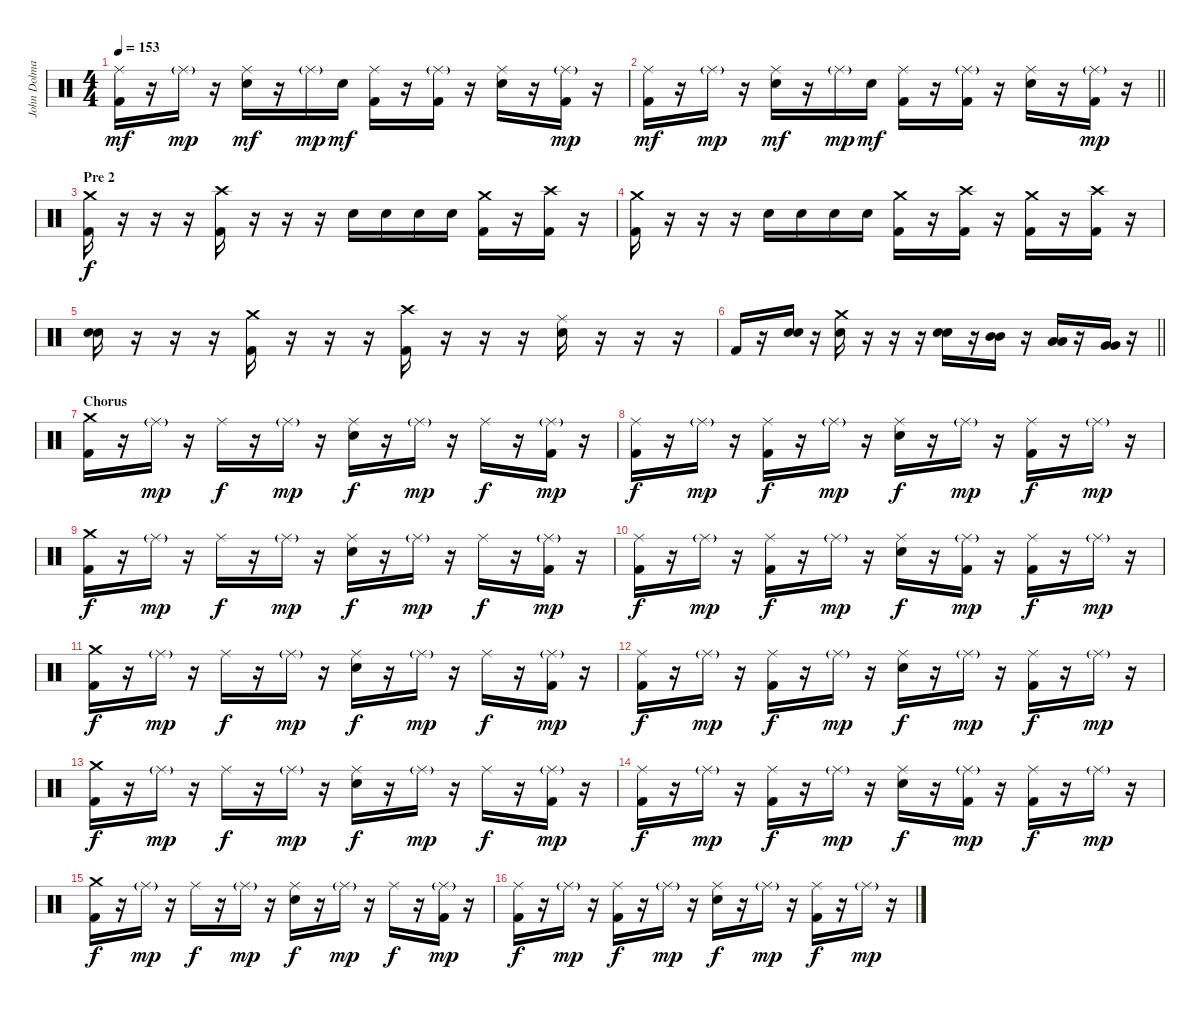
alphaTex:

\track ("John Dolmayan" "John Dolma") {instrument percussion}
\staff {score}
\articulation defaults
\ts (4 4)
\tempo 153
\clef neutral
\ks c
("Ride (middle)" "Kick (hit) 2").16{dy mf} r.16 "Ride (middle)"{g}.16{dy mp} r.16 ("Ride (middle)" "Electric Snare (hit)").16{dy mf} r.16 "Ride (middle)"{g}.16{dy mp} "Electric Snare (hit)".16{dy mf} ("Ride (middle)" "Kick (hit) 2").16 r.16 ("Ride (middle)"{g} "Kick (hit) 2").16 r.16 ("Ride (middle)" "Electric Snare (hit)").16 r.16 ("Ride (middle)"{g} "Kick (hit) 2").16{dy mp} r.16 |
\barLineRight lightlight
("Ride (middle)" "Kick (hit) 2").16{dy mf} r.16 "Ride (middle)"{g}.16{dy mp} r.16 ("Ride (middle)" "Electric Snare (hit)").16{dy mf} r.16 "Ride (middle)"{g}.16{dy mp} "Electric Snare (hit)".16{dy mf} ("Ride (middle)" "Kick (hit) 2").16 r.16 ("Ride (middle)"{g} "Kick (hit) 2").16 r.16 ("Ride (middle)" "Electric Snare (hit)").16 r.16 ("Ride (middle)"{g} "Kick (hit) 2").16{dy mp} r.16 |
\section ("" "Pre 2")
("Crash medium (hit)" "Kick (hit) 2").16{dy f} r.16 r.16 r.16 ("Crash high (hit)" "Kick (hit) 2").16 r.16 r.16 r.16 "Electric Snare (hit)".16 "Electric Snare (hit)".16 "Electric Snare (hit)".16 "Electric Snare (hit)".16 ("Crash medium (hit)" "Kick (hit) 2").16 r.16 ("Crash high (hit)" "Kick (hit) 2").16 r.16 |
("Crash medium (hit)" "Kick (hit) 2").16 r.16 r.16 r.16 "Electric Snare (hit)".16 "Electric Snare (hit)".16 "Electric Snare (hit)".16 "Electric Snare (hit)".16 ("Crash medium (hit)" "Kick (hit) 2").16 r.16 ("Crash high (hit)" "Kick (hit) 2").16 r.16 ("Crash medium (hit)" "Kick (hit) 2").16 r.16 ("Crash high (hit)" "Kick (hit) 2").16 r.16 |
("Electric Snare (hit)" "Electric Snare (hit)").16 r.16 r.16 r.16 ("Crash medium (hit)" "Kick (hit) 2").16 r.16 r.16 r.16 ("Crash high (hit)" "Kick (hit) 2").16 r.16 r.16 r.16 ("Ride (middle)" "Electric Snare (hit)").16 r.16 r.16 r.16 |
\barLineRight lightlight "Kick (hit) 2".16
r.16 ("Electric Snare (hit)" "Electric Snare (hit)").16 r.16 ("Crash medium (hit)" "Electric Snare (hit)").16 r.16 r.16 r.16 ("Electric Snare (hit)" "Electric Snare (hit)").16 r.16 ("Mid Tom (hit)" "Mid Tom (hit)").16 r.16 ("Low Tom (hit)" "Low Tom (hit)").16 r.16 ("Very Low Tom (hit)" "Very Low Tom (hit)").16 r.16 |
\section ("" "Chorus")
("Crash medium (hit)" "Kick (hit) 2").16 r.16 "Ride (middle)"{g}.16{dy mp} r.16 "Ride (middle)".16{dy f} r.16 "Ride (middle)"{g}.16{dy mp} r.16 ("Ride (middle)" "Electric Snare (hit)").16{dy f} r.16 "Ride (middle)"{g}.16{dy mp} r.16 "Ride (middle)".16{dy f} r.16 ("Ride (middle)"{g} "Kick (hit) 2").16{dy mp} r.16 |
("Ride (middle)" "Kick (hit) 2").16{dy f} r.16 "Ride (middle)"{g}.16{dy mp} r.16 ("Ride (middle)" "Kick (hit) 2").16{dy f} r.16 "Ride (middle)"{g}.16{dy mp} r.16 ("Ride (middle)" "Electric Snare (hit)").16{dy f} r.16 "Ride (middle)"{g}.16{dy mp} r.16 ("Ride (middle)" "Kick (hit) 2").16{dy f} r.16 "Ride (middle)"{g}.16{dy mp} r.16 |
("Crash medium (hit)" "Kick (hit) 2").16{dy f} r.16 "Ride (middle)"{g}.16{dy mp} r.16 "Ride (middle)".16{dy f} r.16 "Ride (middle)"{g}.16{dy mp} r.16 ("Ride (middle)" "Electric Snare (hit)").16{dy f} r.16 "Ride (middle)"{g}.16{dy mp} r.16 "Ride (middle)".16{dy f} r.16 ("Ride (middle)"{g} "Kick (hit) 2").16{dy mp} r.16 |
("Ride (middle)" "Kick (hit) 2").16{dy f} r.16 "Ride (middle)"{g}.16{dy mp} r.16 ("Ride (middle)" "Kick (hit) 2").16{dy f} r.16 "Ride (middle)"{g}.16{dy mp} r.16 ("Ride (middle)" "Electric Snare (hit)").16{dy f} r.16 ("Ride (middle)"{g} "Kick (hit) 2").16{dy mp} r.16 ("Ride (middle)" "Kick (hit) 2").16{dy f} r.16 "Ride (middle)"{g}.16{dy mp} r.16 |
("Crash medium (hit)" "Kick (hit) 2").16{dy f} r.16 "Ride (middle)"{g}.16{dy mp} r.16 "Ride (middle)".16{dy f} r.16 "Ride (middle)"{g}.16{dy mp} r.16 ("Ride (middle)" "Electric Snare (hit)").16{dy f} r.16 "Ride (middle)"{g}.16{dy mp} r.16 "Ride (middle)".16{dy f} r.16 ("Ride (middle)"{g} "Kick (hit) 2").16{dy mp} r.16 |
("Ride (middle)" "Kick (hit) 2").16{dy f} r.16 "Ride (middle)"{g}.16{dy mp} r.16 ("Ride (middle)" "Kick (hit) 2").16{dy f} r.16 "Ride (middle)"{g}.16{dy mp} r.16 ("Ride (middle)" "Electric Snare (hit)").16{dy f} r.16 "Ride (middle)"{g}.16{dy mp} r.16 ("Ride (middle)" "Kick (hit) 2").16{dy f} r.16 "Ride (middle)"{g}.16{dy mp} r.16 |
("Crash medium (hit)" "Kick (hit) 2").16{dy f} r.16 "Ride (middle)"{g}.16{dy mp} r.16 "Ride (middle)".16{dy f} r.16 "Ride (middle)"{g}.16{dy mp} r.16 ("Ride (middle)" "Electric Snare (hit)").16{dy f} r.16 "Ride (middle)"{g}.16{dy mp} r.16 "Ride (middle)".16{dy f} r.16 ("Ride (middle)"{g} "Kick (hit) 2").16{dy mp} r.16 |
("Ride (middle)" "Kick (hit) 2").16{dy f} r.16 "Ride (middle)"{g}.16{dy mp} r.16 ("Ride (middle)" "Kick (hit) 2").16{dy f} r.16 "Ride (middle)"{g}.16{dy mp} r.16 ("Ride (middle)" "Electric Snare (hit)").16{dy f} r.16 ("Ride (middle)"{g} "Kick (hit) 2").16{dy mp} r.16 ("Ride (middle)" "Kick (hit) 2").16{dy f} r.16 "Ride (middle)"{g}.16{dy mp} r.16 |
("Crash medium (hit)" "Kick (hit) 2").16{dy f} r.16 "Ride (middle)"{g}.16{dy mp} r.16 "Ride (middle)".16{dy f} r.16 "Ride (middle)"{g}.16{dy mp} r.16 ("Ride (middle)" "Electric Snare (hit)").16{dy f} r.16 "Ride (middle)"{g}.16{dy mp} r.16 "Ride (middle)".16{dy f} r.16 ("Ride (middle)"{g} "Kick (hit) 2").16{dy mp} r.16 |
("Ride (middle)" "Kick (hit) 2").16{dy f} r.16 "Ride (middle)"{g}.16{dy mp} r.16 ("Ride (middle)" "Kick (hit) 2").16{dy f} r.16 "Ride (middle)"{g}.16{dy mp} r.16 ("Ride (middle)" "Electric Snare (hit)").16{dy f} r.16 "Ride (middle)"{g}.16{dy mp} r.16 ("Ride (middle)" "Kick (hit) 2").16{dy f} r.16 "Ride (middle)"{g}.16{dy mp} r.16
